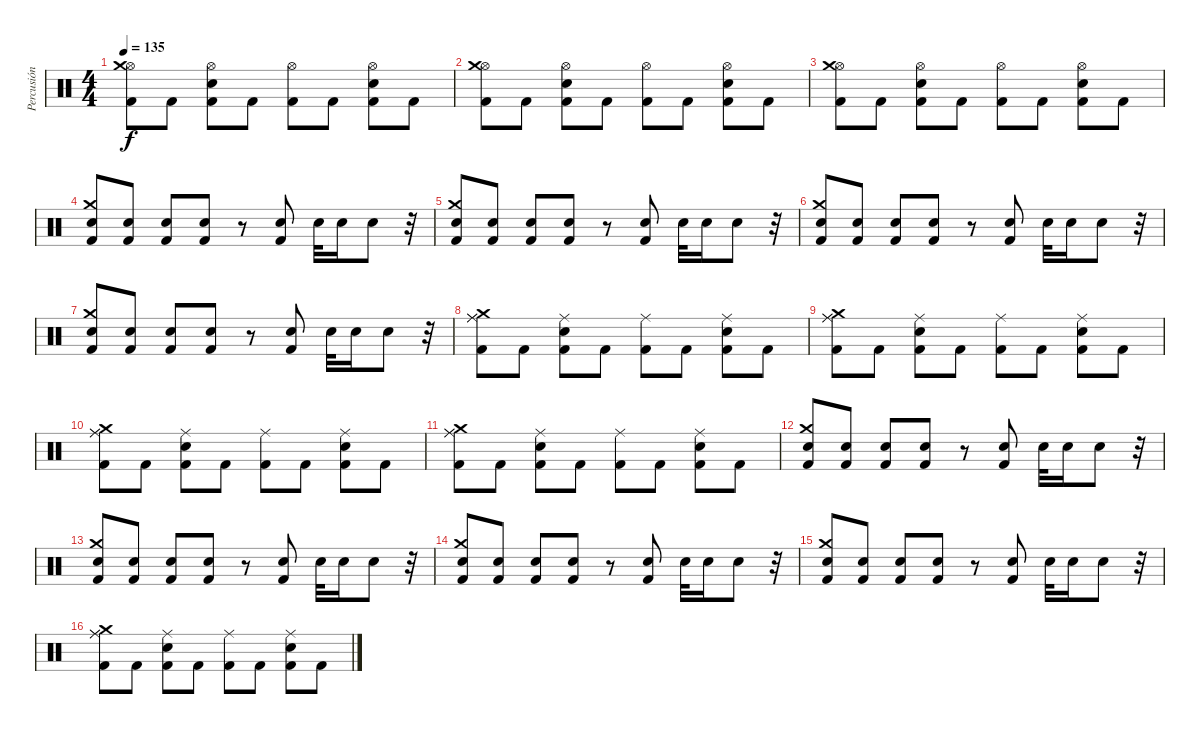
\track ("Percusión" "Percusión") {instrument percussion}
\staff {score}
\articulation defaults
\ts (4 4)
\tempo 135
\clef neutral
\ks c
("Hi-Hat (open)" "Kick (hit) 2" "Crash medium (hit)").8{dy f} "Kick (hit) 2".8 ("Hi-Hat (open)" "Electric Snare (hit)" "Kick (hit) 2").8 "Kick (hit) 2".8 ("Hi-Hat (open)" "Kick (hit) 2").8 "Kick (hit) 2".8 ("Hi-Hat (open)" "Electric Snare (hit)" "Kick (hit) 2").8 "Kick (hit) 2".8 |
("Hi-Hat (open)" "Kick (hit) 2" "Crash medium (hit)").8 "Kick (hit) 2".8 ("Hi-Hat (open)" "Electric Snare (hit)" "Kick (hit) 2").8 "Kick (hit) 2".8 ("Hi-Hat (open)" "Kick (hit) 2").8 "Kick (hit) 2".8 ("Hi-Hat (open)" "Electric Snare (hit)" "Kick (hit) 2").8 "Kick (hit) 2".8 |
("Hi-Hat (open)" "Kick (hit) 2" "Crash medium (hit)").8 "Kick (hit) 2".8 ("Hi-Hat (open)" "Electric Snare (hit)" "Kick (hit) 2").8 "Kick (hit) 2".8 ("Hi-Hat (open)" "Kick (hit) 2").8 "Kick (hit) 2".8 ("Hi-Hat (open)" "Electric Snare (hit)" "Kick (hit) 2").8 "Kick (hit) 2".8 |
("Crash medium (hit)" "Electric Snare (hit)" "Kick (hit) 2").8 ("Electric Snare (hit)" "Kick (hit) 2").8 ("Electric Snare (hit)" "Kick (hit) 2").8 ("Electric Snare (hit)" "Kick (hit) 2").8 r.8 ("Electric Snare (hit)" "Kick (hit) 2").8 "Electric Snare (hit)".32 "Electric Snare (hit)".16 "Electric Snare (hit)".8 r.32 |
("Crash medium (hit)" "Electric Snare (hit)" "Kick (hit) 2").8 ("Electric Snare (hit)" "Kick (hit) 2").8 ("Electric Snare (hit)" "Kick (hit) 2").8 ("Electric Snare (hit)" "Kick (hit) 2").8 r.8 ("Electric Snare (hit)" "Kick (hit) 2").8 "Electric Snare (hit)".32 "Electric Snare (hit)".16 "Electric Snare (hit)".8 r.32 |
("Crash medium (hit)" "Electric Snare (hit)" "Kick (hit) 2").8 ("Electric Snare (hit)" "Kick (hit) 2").8 ("Electric Snare (hit)" "Kick (hit) 2").8 ("Electric Snare (hit)" "Kick (hit) 2").8 r.8 ("Electric Snare (hit)" "Kick (hit) 2").8 "Electric Snare (hit)".32 "Electric Snare (hit)".16 "Electric Snare (hit)".8 r.32 |
("Crash medium (hit)" "Electric Snare (hit)" "Kick (hit) 2").8 ("Electric Snare (hit)" "Kick (hit) 2").8 ("Electric Snare (hit)" "Kick (hit) 2").8 ("Electric Snare (hit)" "Kick (hit) 2").8 r.8 ("Electric Snare (hit)" "Kick (hit) 2").8 "Electric Snare (hit)".32 "Electric Snare (hit)".16 "Electric Snare (hit)".8 r.32 |
("Ride (middle)" "Kick (hit) 2" "Ride (middle)" "Crash medium (hit)").8 "Kick (hit) 2".8 ("Ride (middle)" "Electric Snare (hit)" "Kick (hit) 2").8 "Kick (hit) 2".8 ("Ride (middle)" "Kick (hit) 2").8 "Kick (hit) 2".8 ("Ride (middle)" "Electric Snare (hit)" "Kick (hit) 2").8 "Kick (hit) 2".8 |
("Ride (middle)" "Kick (hit) 2" "Ride (middle)" "Crash medium (hit)").8 "Kick (hit) 2".8 ("Ride (middle)" "Electric Snare (hit)" "Kick (hit) 2").8 "Kick (hit) 2".8 ("Ride (middle)" "Kick (hit) 2").8 "Kick (hit) 2".8 ("Ride (middle)" "Electric Snare (hit)" "Kick (hit) 2").8 "Kick (hit) 2".8 |
("Ride (middle)" "Kick (hit) 2" "Ride (middle)" "Crash medium (hit)").8 "Kick (hit) 2".8 ("Ride (middle)" "Electric Snare (hit)" "Kick (hit) 2").8 "Kick (hit) 2".8 ("Ride (middle)" "Kick (hit) 2").8 "Kick (hit) 2".8 ("Ride (middle)" "Electric Snare (hit)" "Kick (hit) 2").8 "Kick (hit) 2".8 |
("Ride (middle)" "Kick (hit) 2" "Ride (middle)" "Crash medium (hit)").8 "Kick (hit) 2".8 ("Ride (middle)" "Electric Snare (hit)" "Kick (hit) 2").8 "Kick (hit) 2".8 ("Ride (middle)" "Kick (hit) 2").8 "Kick (hit) 2".8 ("Ride (middle)" "Electric Snare (hit)" "Kick (hit) 2").8 "Kick (hit) 2".8 |
("Crash medium (hit)" "Electric Snare (hit)" "Kick (hit) 2").8 ("Electric Snare (hit)" "Kick (hit) 2").8 ("Electric Snare (hit)" "Kick (hit) 2").8 ("Electric Snare (hit)" "Kick (hit) 2").8 r.8 ("Electric Snare (hit)" "Kick (hit) 2").8 "Electric Snare (hit)".32 "Electric Snare (hit)".16 "Electric Snare (hit)".8 r.32 |
("Crash medium (hit)" "Electric Snare (hit)" "Kick (hit) 2").8 ("Electric Snare (hit)" "Kick (hit) 2").8 ("Electric Snare (hit)" "Kick (hit) 2").8 ("Electric Snare (hit)" "Kick (hit) 2").8 r.8 ("Electric Snare (hit)" "Kick (hit) 2").8 "Electric Snare (hit)".32 "Electric Snare (hit)".16 "Electric Snare (hit)".8 r.32 |
("Crash medium (hit)" "Electric Snare (hit)" "Kick (hit) 2").8 ("Electric Snare (hit)" "Kick (hit) 2").8 ("Electric Snare (hit)" "Kick (hit) 2").8 ("Electric Snare (hit)" "Kick (hit) 2").8 r.8 ("Electric Snare (hit)" "Kick (hit) 2").8 "Electric Snare (hit)".32 "Electric Snare (hit)".16 "Electric Snare (hit)".8 r.32 |
("Crash medium (hit)" "Electric Snare (hit)" "Kick (hit) 2").8 ("Electric Snare (hit)" "Kick (hit) 2").8 ("Electric Snare (hit)" "Kick (hit) 2").8 ("Electric Snare (hit)" "Kick (hit) 2").8 r.8 ("Electric Snare (hit)" "Kick (hit) 2").8 "Electric Snare (hit)".32 "Electric Snare (hit)".16 "Electric Snare (hit)".8 r.32 |
("Ride (middle)" "Kick (hit) 2" "Ride (middle)" "Crash medium (hit)").8 "Kick (hit) 2".8 ("Ride (middle)" "Electric Snare (hit)" "Kick (hit) 2").8 "Kick (hit) 2".8 ("Ride (middle)" "Kick (hit) 2").8 "Kick (hit) 2".8 ("Ride (middle)" "Electric Snare (hit)" "Kick (hit) 2").8 "Kick (hit) 2".8
